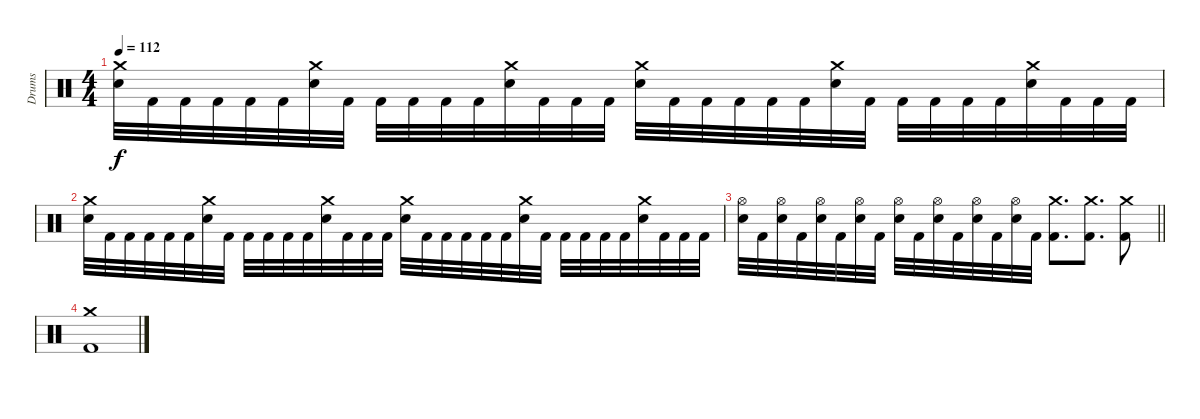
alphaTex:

\track ("Drums" "Drums") {instrument percussion}
\staff {score}
\articulation defaults
\ts (4 4)
\tempo 112
\clef neutral
\ks c
("Snare (hit) 2" "Crash medium (hit)").32{dy f} "Kick (hit) 2".32 "Kick (hit) 2".32 "Kick (hit) 2".32 "Kick (hit) 2".32 "Kick (hit) 2".32 ("Snare (hit) 2" "Crash medium (hit)").32 "Kick (hit) 2".32 "Kick (hit) 2".32 "Kick (hit) 2".32 "Kick (hit) 2".32 "Kick (hit) 2".32 ("Snare (hit) 2" "Crash medium (hit)").32 "Kick (hit) 2".32 "Kick (hit) 2".32 "Kick (hit) 2".32 ("Snare (hit) 2" "Crash medium (hit)").32 "Kick (hit) 2".32 "Kick (hit) 2".32 "Kick (hit) 2".32 "Kick (hit) 2".32 "Kick (hit) 2".32 ("Snare (hit) 2" "Crash medium (hit)").32 "Kick (hit) 2".32 "Kick (hit) 2".32 "Kick (hit) 2".32 "Kick (hit) 2".32 "Kick (hit) 2".32 ("Snare (hit) 2" "Crash medium (hit)").32 "Kick (hit) 2".32 "Kick (hit) 2".32 "Kick (hit) 2".32 |
("Snare (hit) 2" "Crash medium (hit)").32 "Kick (hit) 2".32 "Kick (hit) 2".32 "Kick (hit) 2".32 "Kick (hit) 2".32 "Kick (hit) 2".32 ("Snare (hit) 2" "Crash medium (hit)").32 "Kick (hit) 2".32 "Kick (hit) 2".32 "Kick (hit) 2".32 "Kick (hit) 2".32 "Kick (hit) 2".32 ("Snare (hit) 2" "Crash medium (hit)").32 "Kick (hit) 2".32 "Kick (hit) 2".32 "Kick (hit) 2".32 ("Snare (hit) 2" "Crash medium (hit)").32 "Kick (hit) 2".32 "Kick (hit) 2".32 "Kick (hit) 2".32 "Kick (hit) 2".32 "Kick (hit) 2".32 ("Snare (hit) 2" "Crash medium (hit)").32 "Kick (hit) 2".32 "Kick (hit) 2".32 "Kick (hit) 2".32 "Kick (hit) 2".32 "Kick (hit) 2".32 ("Snare (hit) 2" "Crash medium (hit)").32 "Kick (hit) 2".32 "Kick (hit) 2".32 "Kick (hit) 2".32 |
\barLineRight lightlight
("Hi-Hat (open)" "Snare (hit) 2").32 "Kick (hit) 2".32 ("Hi-Hat (open)" "Snare (hit) 2").32 "Kick (hit) 2".32 ("Hi-Hat (open)" "Snare (hit) 2").32 "Kick (hit) 2".32 ("Hi-Hat (open)" "Snare (hit) 2").32 "Kick (hit) 2".32 ("Hi-Hat (open)" "Snare (hit) 2").32 "Kick (hit) 2".32 ("Hi-Hat (open)" "Snare (hit) 2").32 "Kick (hit) 2".32 ("Hi-Hat (open)" "Snare (hit) 2").32 "Kick (hit) 2".32 ("Hi-Hat (open)" "Snare (hit) 2").32 "Kick (hit) 2".32 ("Kick (hit) 2" "Crash medium (hit)").8{d} ("Kick (hit) 2" "Crash medium (hit)").8{d} ("Kick (hit) 2" "Crash medium (hit)").8 |
("Kick (hit) 2" "Crash medium (hit)").1
